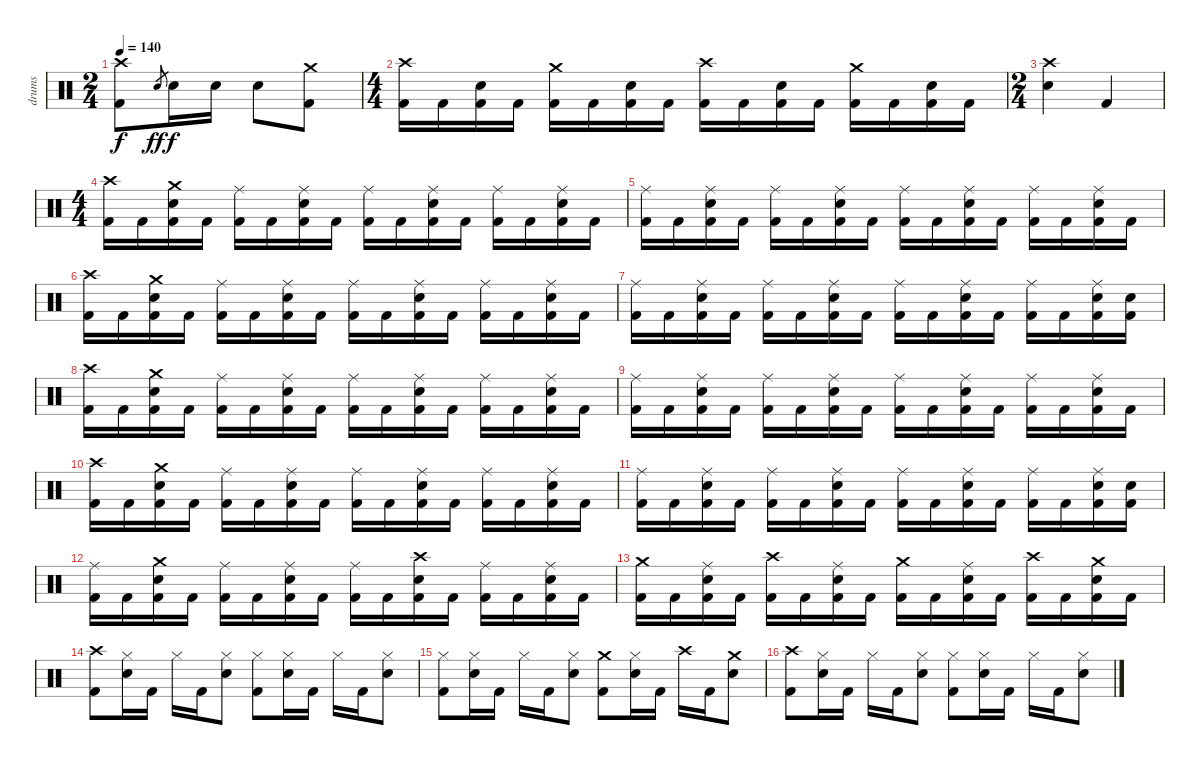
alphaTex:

\track ("drums" "drums") {instrument percussion}
\staff {score}
\articulation defaults
\ts (2 4)
\tempo 140
\clef neutral
\ks c
("Crash high (hit)" "Kick (hit) 2").8{dy f} "Electric Snare (hit)".8{gr dy ff} "Electric Snare (hit)".16{dy f} "Electric Snare (hit)".16 "Electric Snare (hit)".8 ("Crash medium (hit)" "Kick (hit) 2").8 |
\ts (4 4)
("Crash high (hit)" "Kick (hit) 2").16 "Kick (hit) 2".16 ("Electric Snare (hit)" "Kick (hit) 2").16 "Kick (hit) 2".16 ("Crash medium (hit)" "Kick (hit) 2").16 "Kick (hit) 2".16 ("Electric Snare (hit)" "Kick (hit) 2").16 "Kick (hit) 2".16 ("Crash high (hit)" "Kick (hit) 2").16 "Kick (hit) 2".16 ("Electric Snare (hit)" "Kick (hit) 2").16 "Kick (hit) 2".16 ("Crash medium (hit)" "Kick (hit) 2").16 "Kick (hit) 2".16 ("Electric Snare (hit)" "Kick (hit) 2").16 "Kick (hit) 2".16 |
\ts (2 4)
("Crash high (hit)" "Electric Snare (hit)").4 "Kick (hit) 2".4 |
\ts (4 4)
("Crash high (hit)" "Kick (hit) 2").16 "Kick (hit) 2".16 ("Crash medium (hit)" "Electric Snare (hit)" "Kick (hit) 2").16 "Kick (hit) 2".16 ("Ride (middle)" "Kick (hit) 2").16 "Kick (hit) 2".16 ("Ride (middle)" "Electric Snare (hit)" "Kick (hit) 2").16 "Kick (hit) 2".16 ("Ride (middle)" "Kick (hit) 2").16 "Kick (hit) 2".16 ("Ride (middle)" "Electric Snare (hit)" "Kick (hit) 2").16 "Kick (hit) 2".16 ("Ride (middle)" "Kick (hit) 2").16 "Kick (hit) 2".16 ("Ride (middle)" "Electric Snare (hit)" "Kick (hit) 2").16 "Kick (hit) 2".16 |
("Ride (middle)" "Kick (hit) 2").16 "Kick (hit) 2".16 ("Ride (middle)" "Electric Snare (hit)" "Kick (hit) 2").16 "Kick (hit) 2".16 ("Ride (middle)" "Kick (hit) 2").16 "Kick (hit) 2".16 ("Ride (middle)" "Electric Snare (hit)" "Kick (hit) 2").16 "Kick (hit) 2".16 ("Ride (middle)" "Kick (hit) 2").16 "Kick (hit) 2".16 ("Ride (middle)" "Electric Snare (hit)" "Kick (hit) 2").16 "Kick (hit) 2".16 ("Ride (middle)" "Kick (hit) 2").16 "Kick (hit) 2".16 ("Ride (middle)" "Electric Snare (hit)" "Kick (hit) 2").16 "Kick (hit) 2".16 |
("Crash high (hit)" "Kick (hit) 2").16 "Kick (hit) 2".16 ("Crash medium (hit)" "Electric Snare (hit)" "Kick (hit) 2").16 "Kick (hit) 2".16 ("Ride (middle)" "Kick (hit) 2").16 "Kick (hit) 2".16 ("Ride (middle)" "Electric Snare (hit)" "Kick (hit) 2").16 "Kick (hit) 2".16 ("Ride (middle)" "Kick (hit) 2").16 "Kick (hit) 2".16 ("Ride (middle)" "Electric Snare (hit)" "Kick (hit) 2").16 "Kick (hit) 2".16 ("Ride (middle)" "Kick (hit) 2").16 "Kick (hit) 2".16 ("Ride (middle)" "Electric Snare (hit)" "Kick (hit) 2").16 "Kick (hit) 2".16 |
("Ride (middle)" "Kick (hit) 2").16 "Kick (hit) 2".16 ("Ride (middle)" "Electric Snare (hit)" "Kick (hit) 2").16 "Kick (hit) 2".16 ("Ride (middle)" "Kick (hit) 2").16 "Kick (hit) 2".16 ("Ride (middle)" "Electric Snare (hit)" "Kick (hit) 2").16 "Kick (hit) 2".16 ("Ride (middle)" "Kick (hit) 2").16 "Kick (hit) 2".16 ("Ride (middle)" "Electric Snare (hit)" "Kick (hit) 2").16 "Kick (hit) 2".16 ("Ride (middle)" "Kick (hit) 2").16 "Kick (hit) 2".16 ("Ride (middle)" "Electric Snare (hit)" "Kick (hit) 2").16 ("Electric Snare (hit)" "Kick (hit) 2").16 |
("Crash high (hit)" "Kick (hit) 2").16 "Kick (hit) 2".16 ("Crash medium (hit)" "Electric Snare (hit)" "Kick (hit) 2").16 "Kick (hit) 2".16 ("Ride (middle)" "Kick (hit) 2").16 "Kick (hit) 2".16 ("Ride (middle)" "Electric Snare (hit)" "Kick (hit) 2").16 "Kick (hit) 2".16 ("Ride (middle)" "Kick (hit) 2").16 "Kick (hit) 2".16 ("Ride (middle)" "Electric Snare (hit)" "Kick (hit) 2").16 "Kick (hit) 2".16 ("Ride (middle)" "Kick (hit) 2").16 "Kick (hit) 2".16 ("Ride (middle)" "Electric Snare (hit)" "Kick (hit) 2").16 "Kick (hit) 2".16 |
("Ride (middle)" "Kick (hit) 2").16 "Kick (hit) 2".16 ("Ride (middle)" "Electric Snare (hit)" "Kick (hit) 2").16 "Kick (hit) 2".16 ("Ride (middle)" "Kick (hit) 2").16 "Kick (hit) 2".16 ("Ride (middle)" "Electric Snare (hit)" "Kick (hit) 2").16 "Kick (hit) 2".16 ("Ride (middle)" "Kick (hit) 2").16 "Kick (hit) 2".16 ("Ride (middle)" "Electric Snare (hit)" "Kick (hit) 2").16 "Kick (hit) 2".16 ("Ride (middle)" "Kick (hit) 2").16 "Kick (hit) 2".16 ("Ride (middle)" "Electric Snare (hit)" "Kick (hit) 2").16 "Kick (hit) 2".16 |
("Crash high (hit)" "Kick (hit) 2").16 "Kick (hit) 2".16 ("Crash medium (hit)" "Electric Snare (hit)" "Kick (hit) 2").16 "Kick (hit) 2".16 ("Ride (middle)" "Kick (hit) 2").16 "Kick (hit) 2".16 ("Ride (middle)" "Electric Snare (hit)" "Kick (hit) 2").16 "Kick (hit) 2".16 ("Ride (middle)" "Kick (hit) 2").16 "Kick (hit) 2".16 ("Ride (middle)" "Electric Snare (hit)" "Kick (hit) 2").16 "Kick (hit) 2".16 ("Ride (middle)" "Kick (hit) 2").16 "Kick (hit) 2".16 ("Ride (middle)" "Electric Snare (hit)" "Kick (hit) 2").16 "Kick (hit) 2".16 |
("Ride (middle)" "Kick (hit) 2").16 "Kick (hit) 2".16 ("Ride (middle)" "Electric Snare (hit)" "Kick (hit) 2").16 "Kick (hit) 2".16 ("Ride (middle)" "Kick (hit) 2").16 "Kick (hit) 2".16 ("Ride (middle)" "Electric Snare (hit)" "Kick (hit) 2").16 "Kick (hit) 2".16 ("Ride (middle)" "Kick (hit) 2").16 "Kick (hit) 2".16 ("Ride (middle)" "Electric Snare (hit)" "Kick (hit) 2").16 "Kick (hit) 2".16 ("Ride (middle)" "Kick (hit) 2").16 "Kick (hit) 2".16 ("Ride (middle)" "Electric Snare (hit)" "Kick (hit) 2").16 ("Electric Snare (hit)" "Kick (hit) 2").16 |
("Ride (middle)" "Kick (hit) 2").16 "Kick (hit) 2".16 ("Crash medium (hit)" "Electric Snare (hit)" "Kick (hit) 2").16 "Kick (hit) 2".16 ("Ride (middle)" "Kick (hit) 2").16 "Kick (hit) 2".16 ("Ride (middle)" "Electric Snare (hit)" "Kick (hit) 2").16 "Kick (hit) 2".16 ("Ride (middle)" "Kick (hit) 2").16 "Kick (hit) 2".16 ("Crash high (hit)" "Electric Snare (hit)" "Kick (hit) 2").16 "Kick (hit) 2".16 ("Ride (middle)" "Kick (hit) 2").16 "Kick (hit) 2".16 ("Ride (middle)" "Electric Snare (hit)" "Kick (hit) 2").16 "Kick (hit) 2".16 |
("Crash medium (hit)" "Kick (hit) 2").16 "Kick (hit) 2".16 ("Ride (middle)" "Electric Snare (hit)" "Kick (hit) 2").16 "Kick (hit) 2".16 ("Crash high (hit)" "Kick (hit) 2").16 "Kick (hit) 2".16 ("Ride (middle)" "Electric Snare (hit)" "Kick (hit) 2").16 "Kick (hit) 2".16 ("Crash medium (hit)" "Kick (hit) 2").16 "Kick (hit) 2".16 ("Ride (middle)" "Electric Snare (hit)" "Kick (hit) 2").16 "Kick (hit) 2".16 ("Crash high (hit)" "Kick (hit) 2").16 "Kick (hit) 2".16 ("Crash medium (hit)" "Electric Snare (hit)" "Kick (hit) 2").16 "Kick (hit) 2".16 |
("Crash high (hit)" "Kick (hit) 2").8 ("Hi-Hat (closed)" "Electric Snare (hit)").16 "Kick (hit) 2".16 "Hi-Hat (closed)".16 "Kick (hit) 2".16 ("Hi-Hat (closed)" "Electric Snare (hit)").8 ("Hi-Hat (closed)" "Kick (hit) 2").8 ("Hi-Hat (closed)" "Electric Snare (hit)").16 "Kick (hit) 2".16 "Hi-Hat (closed)".16 "Kick (hit) 2".16 ("Hi-Hat (closed)" "Electric Snare (hit)").8 |
("Hi-Hat (closed)" "Kick (hit) 2").8 ("Hi-Hat (closed)" "Electric Snare (hit)").16 "Kick (hit) 2".16 "Hi-Hat (closed)".16 "Kick (hit) 2".16 ("Hi-Hat (closed)" "Electric Snare (hit)").8 ("Crash medium (hit)" "Kick (hit) 2").8 ("Hi-Hat (closed)" "Electric Snare (hit)").16 "Kick (hit) 2".16 "Crash high (hit)".16 "Kick (hit) 2".16 ("Crash medium (hit)" "Electric Snare (hit)").8 |
("Crash high (hit)" "Kick (hit) 2").8 ("Hi-Hat (closed)" "Electric Snare (hit)").16 "Kick (hit) 2".16 "Hi-Hat (closed)".16 "Kick (hit) 2".16 ("Hi-Hat (closed)" "Electric Snare (hit)").8 ("Hi-Hat (closed)" "Kick (hit) 2").8 ("Hi-Hat (closed)" "Electric Snare (hit)").16 "Kick (hit) 2".16 "Hi-Hat (closed)".16 "Kick (hit) 2".16 ("Hi-Hat (closed)" "Electric Snare (hit)").8
